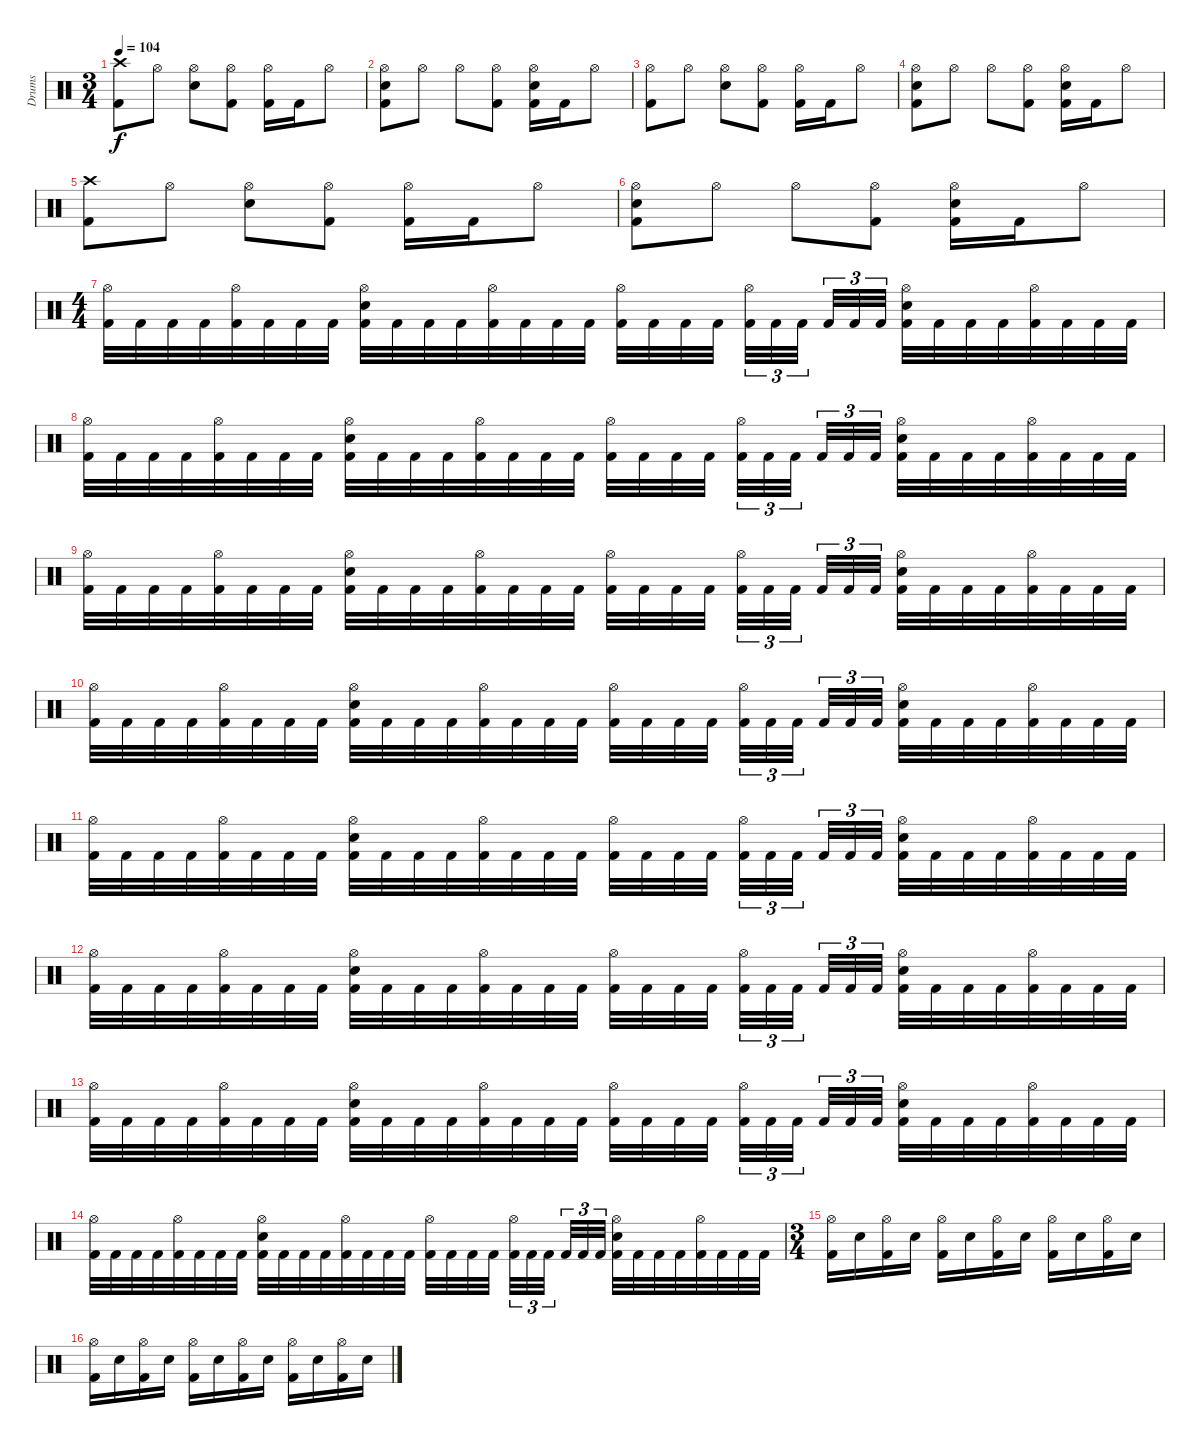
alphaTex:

\track ("Drums" "Drums") {instrument percussion}
\staff {score}
\articulation defaults
\ts (3 4)
\tempo 104
\clef neutral
\ks c
("Crash high (hit)" "Kick (hit) 2").8{dy f} "Hi-Hat (open)".8 ("Hi-Hat (open)" "Snare (hit) 2").8 ("Hi-Hat (open)" "Kick (hit) 2").8 ("Hi-Hat (open)" "Kick (hit) 2").16 "Kick (hit) 2".16 "Hi-Hat (open)".8 |
("Hi-Hat (open)" "Snare (hit) 2" "Kick (hit) 2").8 "Hi-Hat (open)".8 "Hi-Hat (open)".8 ("Hi-Hat (open)" "Kick (hit) 2").8 ("Hi-Hat (open)" "Snare (hit) 2" "Kick (hit) 2").16 "Kick (hit) 2".16 "Hi-Hat (open)".8 |
("Hi-Hat (open)" "Kick (hit) 2").8 "Hi-Hat (open)".8 ("Hi-Hat (open)" "Snare (hit) 2").8 ("Hi-Hat (open)" "Kick (hit) 2").8 ("Hi-Hat (open)" "Kick (hit) 2").16 "Kick (hit) 2".16 "Hi-Hat (open)".8 |
("Hi-Hat (open)" "Snare (hit) 2" "Kick (hit) 2").8 "Hi-Hat (open)".8 "Hi-Hat (open)".8 ("Hi-Hat (open)" "Kick (hit) 2").8 ("Hi-Hat (open)" "Snare (hit) 2" "Kick (hit) 2").16 "Kick (hit) 2".16 "Hi-Hat (open)".8 |
("Crash high (hit)" "Kick (hit) 2").8 "Hi-Hat (open)".8 ("Hi-Hat (open)" "Snare (hit) 2").8 ("Hi-Hat (open)" "Kick (hit) 2").8 ("Hi-Hat (open)" "Kick (hit) 2").16 "Kick (hit) 2".16 "Hi-Hat (open)".8 |
("Hi-Hat (open)" "Snare (hit) 2" "Kick (hit) 2").8 "Hi-Hat (open)".8 "Hi-Hat (open)".8 ("Hi-Hat (open)" "Kick (hit) 2").8 ("Hi-Hat (open)" "Snare (hit) 2" "Kick (hit) 2").16 "Kick (hit) 2".16 "Hi-Hat (open)".8 |
\ts (4 4)
("Hi-Hat (open)" "Kick (hit) 2").32 "Kick (hit) 2".32 "Kick (hit) 2".32 "Kick (hit) 2".32 ("Hi-Hat (open)" "Kick (hit) 2").32 "Kick (hit) 2".32 "Kick (hit) 2".32 "Kick (hit) 2".32 ("Hi-Hat (open)" "Snare (hit) 2" "Kick (hit) 2").32 "Kick (hit) 2".32 "Kick (hit) 2".32 "Kick (hit) 2".32 ("Hi-Hat (open)" "Kick (hit) 2").32 "Kick (hit) 2".32 "Kick (hit) 2".32 "Kick (hit) 2".32 ("Hi-Hat (open)" "Kick (hit) 2").32 "Kick (hit) 2".32 "Kick (hit) 2".32 "Kick (hit) 2".32{beam splitsecondary} ("Hi-Hat (open)" "Kick (hit) 2").32{tu (3 2)} "Kick (hit) 2".32{tu (3 2)} "Kick (hit) 2".32{tu (3 2) beam splitsecondary} "Kick (hit) 2".32{tu (3 2)} "Kick (hit) 2".32{tu (3 2)} "Kick (hit) 2".32{tu (3 2)} ("Hi-Hat (open)" "Snare (hit) 2" "Kick (hit) 2").32 "Kick (hit) 2".32 "Kick (hit) 2".32 "Kick (hit) 2".32 ("Hi-Hat (open)" "Kick (hit) 2").32 "Kick (hit) 2".32 "Kick (hit) 2".32 "Kick (hit) 2".32 |
("Hi-Hat (open)" "Kick (hit) 2").32 "Kick (hit) 2".32 "Kick (hit) 2".32 "Kick (hit) 2".32 ("Hi-Hat (open)" "Kick (hit) 2").32 "Kick (hit) 2".32 "Kick (hit) 2".32 "Kick (hit) 2".32 ("Hi-Hat (open)" "Snare (hit) 2" "Kick (hit) 2").32 "Kick (hit) 2".32 "Kick (hit) 2".32 "Kick (hit) 2".32 ("Hi-Hat (open)" "Kick (hit) 2").32 "Kick (hit) 2".32 "Kick (hit) 2".32 "Kick (hit) 2".32 ("Hi-Hat (open)" "Kick (hit) 2").32 "Kick (hit) 2".32 "Kick (hit) 2".32 "Kick (hit) 2".32{beam splitsecondary} ("Hi-Hat (open)" "Kick (hit) 2").32{tu (3 2)} "Kick (hit) 2".32{tu (3 2)} "Kick (hit) 2".32{tu (3 2) beam splitsecondary} "Kick (hit) 2".32{tu (3 2)} "Kick (hit) 2".32{tu (3 2)} "Kick (hit) 2".32{tu (3 2)} ("Hi-Hat (open)" "Snare (hit) 2" "Kick (hit) 2").32 "Kick (hit) 2".32 "Kick (hit) 2".32 "Kick (hit) 2".32 ("Hi-Hat (open)" "Kick (hit) 2").32 "Kick (hit) 2".32 "Kick (hit) 2".32 "Kick (hit) 2".32 |
("Hi-Hat (open)" "Kick (hit) 2").32 "Kick (hit) 2".32 "Kick (hit) 2".32 "Kick (hit) 2".32 ("Hi-Hat (open)" "Kick (hit) 2").32 "Kick (hit) 2".32 "Kick (hit) 2".32 "Kick (hit) 2".32 ("Hi-Hat (open)" "Snare (hit) 2" "Kick (hit) 2").32 "Kick (hit) 2".32 "Kick (hit) 2".32 "Kick (hit) 2".32 ("Hi-Hat (open)" "Kick (hit) 2").32 "Kick (hit) 2".32 "Kick (hit) 2".32 "Kick (hit) 2".32 ("Hi-Hat (open)" "Kick (hit) 2").32 "Kick (hit) 2".32 "Kick (hit) 2".32 "Kick (hit) 2".32{beam splitsecondary} ("Hi-Hat (open)" "Kick (hit) 2").32{tu (3 2)} "Kick (hit) 2".32{tu (3 2)} "Kick (hit) 2".32{tu (3 2) beam splitsecondary} "Kick (hit) 2".32{tu (3 2)} "Kick (hit) 2".32{tu (3 2)} "Kick (hit) 2".32{tu (3 2)} ("Hi-Hat (open)" "Snare (hit) 2" "Kick (hit) 2").32 "Kick (hit) 2".32 "Kick (hit) 2".32 "Kick (hit) 2".32 ("Hi-Hat (open)" "Kick (hit) 2").32 "Kick (hit) 2".32 "Kick (hit) 2".32 "Kick (hit) 2".32 |
("Hi-Hat (open)" "Kick (hit) 2").32 "Kick (hit) 2".32 "Kick (hit) 2".32 "Kick (hit) 2".32 ("Hi-Hat (open)" "Kick (hit) 2").32 "Kick (hit) 2".32 "Kick (hit) 2".32 "Kick (hit) 2".32 ("Hi-Hat (open)" "Snare (hit) 2" "Kick (hit) 2").32 "Kick (hit) 2".32 "Kick (hit) 2".32 "Kick (hit) 2".32 ("Hi-Hat (open)" "Kick (hit) 2").32 "Kick (hit) 2".32 "Kick (hit) 2".32 "Kick (hit) 2".32 ("Hi-Hat (open)" "Kick (hit) 2").32 "Kick (hit) 2".32 "Kick (hit) 2".32 "Kick (hit) 2".32{beam splitsecondary} ("Hi-Hat (open)" "Kick (hit) 2").32{tu (3 2)} "Kick (hit) 2".32{tu (3 2)} "Kick (hit) 2".32{tu (3 2) beam splitsecondary} "Kick (hit) 2".32{tu (3 2)} "Kick (hit) 2".32{tu (3 2)} "Kick (hit) 2".32{tu (3 2)} ("Hi-Hat (open)" "Snare (hit) 2" "Kick (hit) 2").32 "Kick (hit) 2".32 "Kick (hit) 2".32 "Kick (hit) 2".32 ("Hi-Hat (open)" "Kick (hit) 2").32 "Kick (hit) 2".32 "Kick (hit) 2".32 "Kick (hit) 2".32 |
("Hi-Hat (open)" "Kick (hit) 2").32 "Kick (hit) 2".32 "Kick (hit) 2".32 "Kick (hit) 2".32 ("Hi-Hat (open)" "Kick (hit) 2").32 "Kick (hit) 2".32 "Kick (hit) 2".32 "Kick (hit) 2".32 ("Hi-Hat (open)" "Snare (hit) 2" "Kick (hit) 2").32 "Kick (hit) 2".32 "Kick (hit) 2".32 "Kick (hit) 2".32 ("Hi-Hat (open)" "Kick (hit) 2").32 "Kick (hit) 2".32 "Kick (hit) 2".32 "Kick (hit) 2".32 ("Hi-Hat (open)" "Kick (hit) 2").32 "Kick (hit) 2".32 "Kick (hit) 2".32 "Kick (hit) 2".32{beam splitsecondary} ("Hi-Hat (open)" "Kick (hit) 2").32{tu (3 2)} "Kick (hit) 2".32{tu (3 2)} "Kick (hit) 2".32{tu (3 2) beam splitsecondary} "Kick (hit) 2".32{tu (3 2)} "Kick (hit) 2".32{tu (3 2)} "Kick (hit) 2".32{tu (3 2)} ("Hi-Hat (open)" "Snare (hit) 2" "Kick (hit) 2").32 "Kick (hit) 2".32 "Kick (hit) 2".32 "Kick (hit) 2".32 ("Hi-Hat (open)" "Kick (hit) 2").32 "Kick (hit) 2".32 "Kick (hit) 2".32 "Kick (hit) 2".32 |
("Hi-Hat (open)" "Kick (hit) 2").32 "Kick (hit) 2".32 "Kick (hit) 2".32 "Kick (hit) 2".32 ("Hi-Hat (open)" "Kick (hit) 2").32 "Kick (hit) 2".32 "Kick (hit) 2".32 "Kick (hit) 2".32 ("Hi-Hat (open)" "Snare (hit) 2" "Kick (hit) 2").32 "Kick (hit) 2".32 "Kick (hit) 2".32 "Kick (hit) 2".32 ("Hi-Hat (open)" "Kick (hit) 2").32 "Kick (hit) 2".32 "Kick (hit) 2".32 "Kick (hit) 2".32 ("Hi-Hat (open)" "Kick (hit) 2").32 "Kick (hit) 2".32 "Kick (hit) 2".32 "Kick (hit) 2".32{beam splitsecondary} ("Hi-Hat (open)" "Kick (hit) 2").32{tu (3 2)} "Kick (hit) 2".32{tu (3 2)} "Kick (hit) 2".32{tu (3 2) beam splitsecondary} "Kick (hit) 2".32{tu (3 2)} "Kick (hit) 2".32{tu (3 2)} "Kick (hit) 2".32{tu (3 2)} ("Hi-Hat (open)" "Snare (hit) 2" "Kick (hit) 2").32 "Kick (hit) 2".32 "Kick (hit) 2".32 "Kick (hit) 2".32 ("Hi-Hat (open)" "Kick (hit) 2").32 "Kick (hit) 2".32 "Kick (hit) 2".32 "Kick (hit) 2".32 |
("Hi-Hat (open)" "Kick (hit) 2").32 "Kick (hit) 2".32 "Kick (hit) 2".32 "Kick (hit) 2".32 ("Hi-Hat (open)" "Kick (hit) 2").32 "Kick (hit) 2".32 "Kick (hit) 2".32 "Kick (hit) 2".32 ("Hi-Hat (open)" "Snare (hit) 2" "Kick (hit) 2").32 "Kick (hit) 2".32 "Kick (hit) 2".32 "Kick (hit) 2".32 ("Hi-Hat (open)" "Kick (hit) 2").32 "Kick (hit) 2".32 "Kick (hit) 2".32 "Kick (hit) 2".32 ("Hi-Hat (open)" "Kick (hit) 2").32 "Kick (hit) 2".32 "Kick (hit) 2".32 "Kick (hit) 2".32{beam splitsecondary} ("Hi-Hat (open)" "Kick (hit) 2").32{tu (3 2)} "Kick (hit) 2".32{tu (3 2)} "Kick (hit) 2".32{tu (3 2) beam splitsecondary} "Kick (hit) 2".32{tu (3 2)} "Kick (hit) 2".32{tu (3 2)} "Kick (hit) 2".32{tu (3 2)} ("Hi-Hat (open)" "Snare (hit) 2" "Kick (hit) 2").32 "Kick (hit) 2".32 "Kick (hit) 2".32 "Kick (hit) 2".32 ("Hi-Hat (open)" "Kick (hit) 2").32 "Kick (hit) 2".32 "Kick (hit) 2".32 "Kick (hit) 2".32 |
("Hi-Hat (open)" "Kick (hit) 2").32 "Kick (hit) 2".32 "Kick (hit) 2".32 "Kick (hit) 2".32 ("Hi-Hat (open)" "Kick (hit) 2").32 "Kick (hit) 2".32 "Kick (hit) 2".32 "Kick (hit) 2".32 ("Hi-Hat (open)" "Snare (hit) 2" "Kick (hit) 2").32 "Kick (hit) 2".32 "Kick (hit) 2".32 "Kick (hit) 2".32 ("Hi-Hat (open)" "Kick (hit) 2").32 "Kick (hit) 2".32 "Kick (hit) 2".32 "Kick (hit) 2".32 ("Hi-Hat (open)" "Kick (hit) 2").32 "Kick (hit) 2".32 "Kick (hit) 2".32 "Kick (hit) 2".32{beam splitsecondary} ("Hi-Hat (open)" "Kick (hit) 2").32{tu (3 2)} "Kick (hit) 2".32{tu (3 2)} "Kick (hit) 2".32{tu (3 2) beam splitsecondary} "Kick (hit) 2".32{tu (3 2)} "Kick (hit) 2".32{tu (3 2)} "Kick (hit) 2".32{tu (3 2)} ("Hi-Hat (open)" "Snare (hit) 2" "Kick (hit) 2").32 "Kick (hit) 2".32 "Kick (hit) 2".32 "Kick (hit) 2".32 ("Hi-Hat (open)" "Kick (hit) 2").32 "Kick (hit) 2".32 "Kick (hit) 2".32 "Kick (hit) 2".32 |
\ts (3 4)
("Hi-Hat (open)" "Kick (hit) 2").16 "Snare (hit) 2".16 ("Hi-Hat (open)" "Kick (hit) 2").16 "Snare (hit) 2".16 ("Hi-Hat (open)" "Kick (hit) 2").16 "Snare (hit) 2".16 ("Hi-Hat (open)" "Kick (hit) 2").16 "Snare (hit) 2".16 ("Hi-Hat (open)" "Kick (hit) 2").16 "Snare (hit) 2".16 ("Hi-Hat (open)" "Kick (hit) 2").16 "Snare (hit) 2".16 |
("Hi-Hat (open)" "Kick (hit) 2").16 "Snare (hit) 2".16 ("Hi-Hat (open)" "Kick (hit) 2").16 "Snare (hit) 2".16 ("Hi-Hat (open)" "Kick (hit) 2").16 "Snare (hit) 2".16 ("Hi-Hat (open)" "Kick (hit) 2").16 "Snare (hit) 2".16 ("Hi-Hat (open)" "Kick (hit) 2").16 "Snare (hit) 2".16 ("Hi-Hat (open)" "Kick (hit) 2").16 "Snare (hit) 2".16
